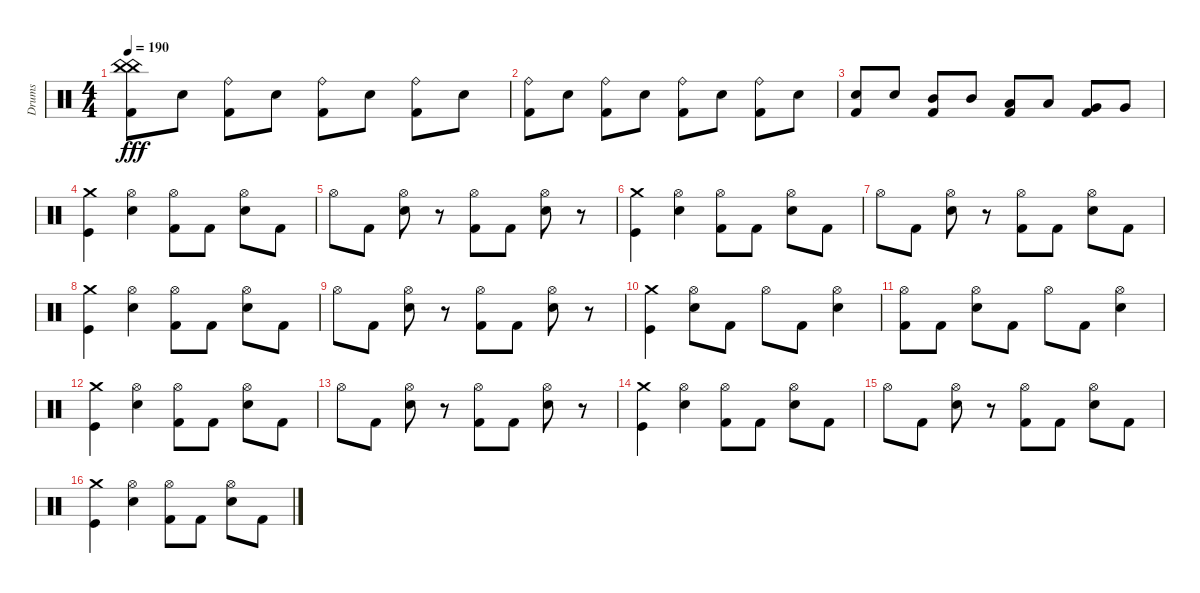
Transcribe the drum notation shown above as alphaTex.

\track ("Drums" "Drums") {instrument percussion}
\staff {score}
\articulation defaults
\ts (4 4)
\tempo 190
\clef neutral
\ks c
("Kick (hit) 2" "China (hit)" "China (hit)").8{dy fff} "Electric Snare (hit)".8 ("Kick (hit) 2" "Ride (bell)").8 "Electric Snare (hit)".8 ("Kick (hit) 2" "Ride (bell)").8 "Electric Snare (hit)".8 ("Kick (hit) 2" "Ride (bell)").8 "Electric Snare (hit)".8 |
("Kick (hit) 2" "Ride (bell)").8 "Electric Snare (hit)".8 ("Kick (hit) 2" "Ride (bell)").8 "Electric Snare (hit)".8 ("Kick (hit) 2" "Ride (bell)").8 "Electric Snare (hit)".8 ("Kick (hit) 2" "Ride (bell)").8 "Electric Snare (hit)".8 |
("Electric Snare (hit)" "Kick (hit) 2").8 "Electric Snare (hit)".8 ("Mid Tom (hit)" "Kick (hit) 2").8 "Mid Tom (hit)".8 ("Low Tom (hit)" "Kick (hit) 2").8 "Low Tom (hit)".8 ("Very Low Tom (hit)" "Kick (hit) 2").8 "Very Low Tom (hit)".8 |
("Crash medium (hit)" "Kick (hit)").4 ("Electric Snare (hit)" "Hi-Hat (open)").4 ("Kick (hit) 2" "Hi-Hat (open)").8 "Kick (hit) 2".8 ("Electric Snare (hit)" "Hi-Hat (open)").8 "Kick (hit) 2".8 |
"Hi-Hat (open)".8 "Kick (hit) 2".8 ("Electric Snare (hit)" "Hi-Hat (open)").8 r.8 ("Kick (hit) 2" "Hi-Hat (open)").8 "Kick (hit) 2".8 ("Hi-Hat (open)" "Electric Snare (hit)").8 r.8 |
("Crash medium (hit)" "Kick (hit)").4 ("Electric Snare (hit)" "Hi-Hat (open)").4 ("Kick (hit) 2" "Hi-Hat (open)").8 "Kick (hit) 2".8 ("Electric Snare (hit)" "Hi-Hat (open)").8 "Kick (hit) 2".8 |
"Hi-Hat (open)".8 "Kick (hit) 2".8 ("Electric Snare (hit)" "Hi-Hat (open)").8 r.8 ("Kick (hit) 2" "Hi-Hat (open)").8 "Kick (hit) 2".8 ("Hi-Hat (open)" "Electric Snare (hit)").8 "Kick (hit) 2".8 |
("Crash medium (hit)" "Kick (hit)").4 ("Electric Snare (hit)" "Hi-Hat (open)").4 ("Kick (hit) 2" "Hi-Hat (open)").8 "Kick (hit) 2".8 ("Electric Snare (hit)" "Hi-Hat (open)").8 "Kick (hit) 2".8 |
"Hi-Hat (open)".8 "Kick (hit) 2".8 ("Electric Snare (hit)" "Hi-Hat (open)").8 r.8 ("Kick (hit) 2" "Hi-Hat (open)").8 "Kick (hit) 2".8 ("Hi-Hat (open)" "Electric Snare (hit)").8 r.8 |
("Crash medium (hit)" "Kick (hit)").4 ("Electric Snare (hit)" "Hi-Hat (open)").8 "Kick (hit) 2".8 "Hi-Hat (open)".8 "Kick (hit) 2".8 ("Hi-Hat (open)" "Electric Snare (hit)").4 |
("Hi-Hat (open)" "Kick (hit) 2").8 "Kick (hit) 2".8 ("Hi-Hat (open)" "Electric Snare (hit)").8 "Kick (hit) 2".8 "Hi-Hat (open)".8 "Kick (hit) 2".8 ("Hi-Hat (open)" "Electric Snare (hit)").4 |
("Crash medium (hit)" "Kick (hit)").4 ("Electric Snare (hit)" "Hi-Hat (open)").4 ("Kick (hit) 2" "Hi-Hat (open)").8 "Kick (hit) 2".8 ("Electric Snare (hit)" "Hi-Hat (open)").8 "Kick (hit) 2".8 |
"Hi-Hat (open)".8 "Kick (hit) 2".8 ("Electric Snare (hit)" "Hi-Hat (open)").8 r.8 ("Kick (hit) 2" "Hi-Hat (open)").8 "Kick (hit) 2".8 ("Hi-Hat (open)" "Electric Snare (hit)").8 r.8 |
("Crash medium (hit)" "Kick (hit)").4 ("Electric Snare (hit)" "Hi-Hat (open)").4 ("Kick (hit) 2" "Hi-Hat (open)").8 "Kick (hit) 2".8 ("Electric Snare (hit)" "Hi-Hat (open)").8 "Kick (hit) 2".8 |
"Hi-Hat (open)".8 "Kick (hit) 2".8 ("Electric Snare (hit)" "Hi-Hat (open)").8 r.8 ("Kick (hit) 2" "Hi-Hat (open)").8 "Kick (hit) 2".8 ("Hi-Hat (open)" "Electric Snare (hit)").8 "Kick (hit) 2".8 |
("Crash medium (hit)" "Kick (hit)").4 ("Electric Snare (hit)" "Hi-Hat (open)").4 ("Kick (hit) 2" "Hi-Hat (open)").8 "Kick (hit) 2".8 ("Electric Snare (hit)" "Hi-Hat (open)").8 "Kick (hit) 2".8
